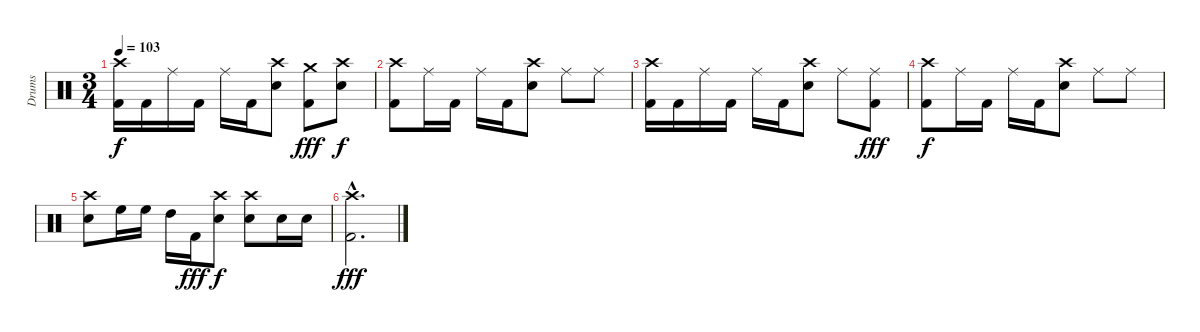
\track ("Drums" "Drums") {instrument percussion}
\staff {score}
\articulation defaults
\ts (3 4)
\tempo 103
\clef neutral
\ks c
("Crash high (hit)" "Kick (hit) 2").16{dy f} "Kick (hit) 2".16 "Ride (middle)".16 "Kick (hit) 2".16 "Ride (middle)".16 "Kick (hit) 2".16 ("Crash high (hit)" "Snare (hit) 2").8 ("Crash medium (hit)" "Kick (hit) 2").8{dy fff} ("Crash high (hit)" "Snare (hit) 2").8{dy f} |
("Crash high (hit)" "Kick (hit) 2").8 "Ride (middle)".16 "Kick (hit) 2".16 "Ride (middle)".16 "Kick (hit) 2".16 ("Crash high (hit)" "Snare (hit) 2").8 "Ride (middle)".8 "Ride (middle)".8 |
("Crash high (hit)" "Kick (hit) 2").16 "Kick (hit) 2".16 "Ride (middle)".16 "Kick (hit) 2".16 "Ride (middle)".16 "Kick (hit) 2".16 ("Crash high (hit)" "Snare (hit) 2").8 "Ride (middle)".8 ("Ride (middle)" "Kick (hit) 2").8{dy fff} |
("Crash high (hit)" "Kick (hit) 2").8{dy f} "Ride (middle)".16 "Kick (hit) 2".16 "Ride (middle)".16 "Kick (hit) 2".16 ("Crash high (hit)" "Snare (hit) 2").8 "Ride (middle)".8 "Ride (middle)".8 |
("Crash high (hit)" "Snare (hit) 2").8 "High Floor Tom (hit)".16 "High Floor Tom (hit)".16 "High Tom (hit)".16 "Kick (hit) 2".16{dy fff} ("Crash high (hit)" "Snare (hit) 2").8{dy f} ("Crash high (hit)" "Snare (hit) 2").8 "Snare (hit) 2".16 "Snare (hit) 2".16 |
("Crash high (hit)"{hac} "Kick (hit) 2"{hac}).2{d dy fff}
